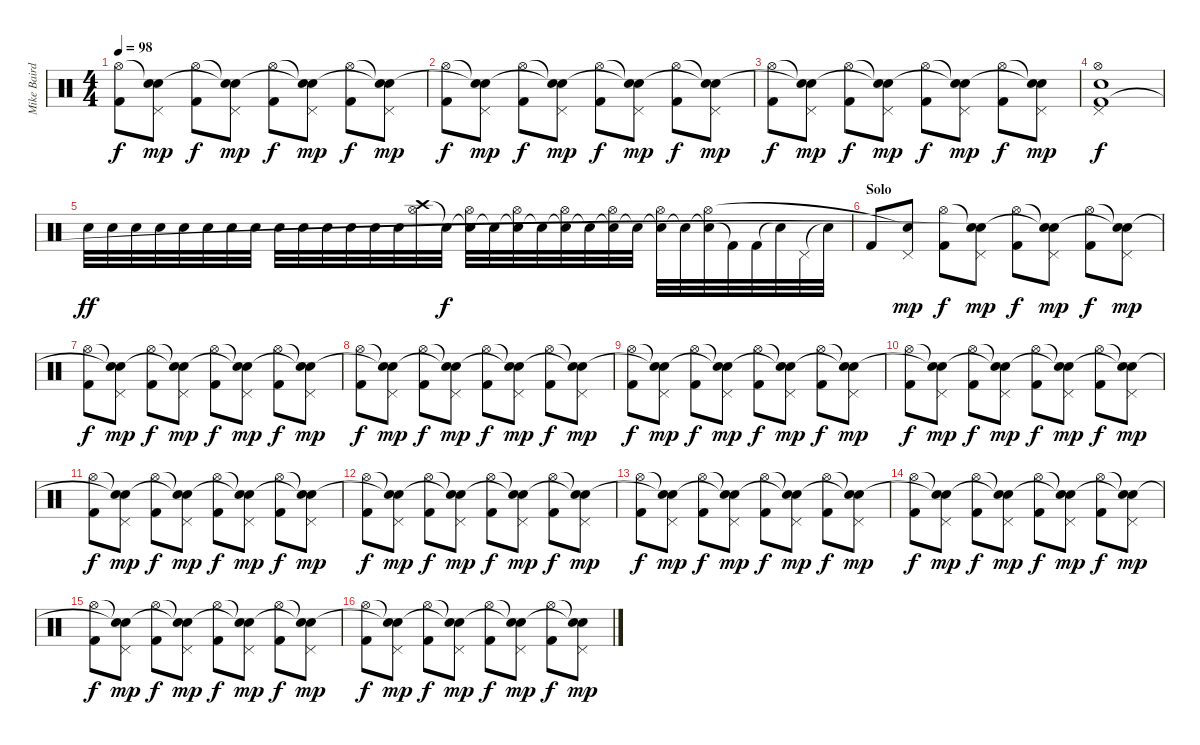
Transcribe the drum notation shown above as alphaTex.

\track ("Mike Baird [drums]" "Mike Baird") {instrument percussion}
\staff {score}
\articulation defaults
\ts (4 4)
\tempo 98
\clef neutral
\ks c
("Hi-Hat (open)" "Kick (hit) 2").8{dy f} ("Snare (hit)"{t} "Pedal Hi-Hat (hit)" "Snare (hit)"{t}).8{dy mp} ("Hi-Hat (open)" "Kick (hit) 2").8{dy f} ("Snare (hit)"{t} "Pedal Hi-Hat (hit)" "Snare (hit)"{t}).8{dy mp} ("Hi-Hat (open)" "Kick (hit) 2").8{dy f} ("Snare (hit)"{t} "Pedal Hi-Hat (hit)" "Snare (hit)"{t}).8{dy mp} ("Hi-Hat (open)" "Kick (hit) 2").8{dy f} ("Snare (hit)"{t} "Pedal Hi-Hat (hit)" "Snare (hit)"{t}).8{dy mp} |
("Hi-Hat (open)" "Kick (hit) 2").8{dy f} ("Snare (hit)"{t} "Pedal Hi-Hat (hit)" "Snare (hit)"{t}).8{dy mp} ("Hi-Hat (open)" "Kick (hit) 2").8{dy f} ("Snare (hit)"{t} "Pedal Hi-Hat (hit)" "Snare (hit)"{t}).8{dy mp} ("Hi-Hat (open)" "Kick (hit) 2").8{dy f} ("Snare (hit)"{t} "Pedal Hi-Hat (hit)" "Snare (hit)"{t}).8{dy mp} ("Hi-Hat (open)" "Kick (hit) 2").8{dy f} ("Snare (hit)"{t} "Pedal Hi-Hat (hit)" "Snare (hit)"{t}).8{dy mp} |
("Hi-Hat (open)" "Kick (hit) 2").8{dy f} ("Snare (hit)"{t} "Pedal Hi-Hat (hit)" "Snare (hit)"{t}).8{dy mp} ("Hi-Hat (open)" "Kick (hit) 2").8{dy f} ("Snare (hit)"{t} "Pedal Hi-Hat (hit)" "Snare (hit)"{t}).8{dy mp} ("Hi-Hat (open)" "Kick (hit) 2").8{dy f} ("Snare (hit)"{t} "Pedal Hi-Hat (hit)" "Snare (hit)"{t}).8{dy mp} ("Hi-Hat (open)" "Kick (hit) 2").8{dy f} ("Snare (hit)"{t} "Pedal Hi-Hat (hit)" "Snare (hit)"{t}).8{dy mp} |
("Hi-Hat (open)" "Pedal Hi-Hat (hit)" "Kick (hit) 2" "Electric Snare (hit)").1{dy f} |
"Electric Snare (hit)".32{dy ff} "Electric Snare (hit)".32 "Electric Snare (hit)".32 "Electric Snare (hit)".32 "Electric Snare (hit)".32 "Electric Snare (hit)".32 "Electric Snare (hit)".32 "Electric Snare (hit)".32 "Electric Snare (hit)".32 "Electric Snare (hit)".32 "Electric Snare (hit)".32 "Electric Snare (hit)".32 "Electric Snare (hit)".32 "Electric Snare (hit)".32 ("Crash high (hit)" "Hi-Hat (open)").32 "Snare (hit)"{t}.32{dy f} ("Snare (hit)"{t} "Hi-Hat (open)").32 "Snare (hit)"{t}.32 ("Snare (hit)"{t} "Hi-Hat (open)").32 "Snare (hit)"{t}.32 ("Snare (hit)"{t} "Hi-Hat (open)").32 "Snare (hit)"{t}.32 ("Snare (hit)"{t} "Hi-Hat (open)").32 "Snare (hit)"{t}.32 ("Snare (hit)"{t} "Hi-Hat (open)").32 "Snare (hit)"{t}.32 ("Snare (hit)"{t} "Hi-Hat (open)").32 "Kick (hit) 2"{t}.32 "Kick (hit) 2".32 "Snare (hit)"{t}.32 "Pedal Hi-Hat (hit)".32 "Snare (hit)"{t}.32 |
\section ("" "Solo")
"Kick (hit) 2".8 ("Pedal Hi-Hat (hit)" "Snare (hit)"{t}).8{dy mp} ("Hi-Hat (open)" "Kick (hit) 2").8{dy f} ("Snare (hit)"{t} "Pedal Hi-Hat (hit)" "Snare (hit)"{t}).8{dy mp} ("Hi-Hat (open)" "Kick (hit) 2").8{dy f} ("Snare (hit)"{t} "Pedal Hi-Hat (hit)" "Snare (hit)"{t}).8{dy mp} ("Hi-Hat (open)" "Kick (hit) 2").8{dy f} ("Snare (hit)"{t} "Pedal Hi-Hat (hit)" "Snare (hit)"{t}).8{dy mp} |
("Hi-Hat (open)" "Kick (hit) 2").8{dy f} ("Snare (hit)"{t} "Pedal Hi-Hat (hit)" "Snare (hit)"{t}).8{dy mp} ("Hi-Hat (open)" "Kick (hit) 2").8{dy f} ("Snare (hit)"{t} "Pedal Hi-Hat (hit)" "Snare (hit)"{t}).8{dy mp} ("Hi-Hat (open)" "Kick (hit) 2").8{dy f} ("Snare (hit)"{t} "Pedal Hi-Hat (hit)" "Snare (hit)"{t}).8{dy mp} ("Hi-Hat (open)" "Kick (hit) 2").8{dy f} ("Snare (hit)"{t} "Pedal Hi-Hat (hit)" "Snare (hit)"{t}).8{dy mp} |
("Hi-Hat (open)" "Kick (hit) 2").8{dy f} ("Snare (hit)"{t} "Pedal Hi-Hat (hit)" "Snare (hit)"{t}).8{dy mp} ("Hi-Hat (open)" "Kick (hit) 2").8{dy f} ("Snare (hit)"{t} "Pedal Hi-Hat (hit)" "Snare (hit)"{t}).8{dy mp} ("Hi-Hat (open)" "Kick (hit) 2").8{dy f} ("Snare (hit)"{t} "Pedal Hi-Hat (hit)" "Snare (hit)"{t}).8{dy mp} ("Hi-Hat (open)" "Kick (hit) 2").8{dy f} ("Snare (hit)"{t} "Pedal Hi-Hat (hit)" "Snare (hit)"{t}).8{dy mp} |
("Hi-Hat (open)" "Kick (hit) 2").8{dy f} ("Snare (hit)"{t} "Pedal Hi-Hat (hit)" "Snare (hit)"{t}).8{dy mp} ("Hi-Hat (open)" "Kick (hit) 2").8{dy f} ("Snare (hit)"{t} "Pedal Hi-Hat (hit)" "Snare (hit)"{t}).8{dy mp} ("Hi-Hat (open)" "Kick (hit) 2").8{dy f} ("Snare (hit)"{t} "Pedal Hi-Hat (hit)" "Snare (hit)"{t}).8{dy mp} ("Hi-Hat (open)" "Kick (hit) 2").8{dy f} ("Snare (hit)"{t} "Pedal Hi-Hat (hit)" "Snare (hit)"{t}).8{dy mp} |
("Hi-Hat (open)" "Kick (hit) 2").8{dy f} ("Snare (hit)"{t} "Pedal Hi-Hat (hit)" "Snare (hit)"{t}).8{dy mp} ("Hi-Hat (open)" "Kick (hit) 2").8{dy f} ("Snare (hit)"{t} "Pedal Hi-Hat (hit)" "Snare (hit)"{t}).8{dy mp} ("Hi-Hat (open)" "Kick (hit) 2").8{dy f} ("Snare (hit)"{t} "Pedal Hi-Hat (hit)" "Snare (hit)"{t}).8{dy mp} ("Hi-Hat (open)" "Kick (hit) 2").8{dy f} ("Snare (hit)"{t} "Pedal Hi-Hat (hit)" "Snare (hit)"{t}).8{dy mp} |
("Hi-Hat (open)" "Kick (hit) 2").8{dy f} ("Snare (hit)"{t} "Pedal Hi-Hat (hit)" "Snare (hit)"{t}).8{dy mp} ("Hi-Hat (open)" "Kick (hit) 2").8{dy f} ("Snare (hit)"{t} "Pedal Hi-Hat (hit)" "Snare (hit)"{t}).8{dy mp} ("Hi-Hat (open)" "Kick (hit) 2").8{dy f} ("Snare (hit)"{t} "Pedal Hi-Hat (hit)" "Snare (hit)"{t}).8{dy mp} ("Hi-Hat (open)" "Kick (hit) 2").8{dy f} ("Snare (hit)"{t} "Pedal Hi-Hat (hit)" "Snare (hit)"{t}).8{dy mp} |
("Hi-Hat (open)" "Kick (hit) 2").8{dy f} ("Snare (hit)"{t} "Pedal Hi-Hat (hit)" "Snare (hit)"{t}).8{dy mp} ("Hi-Hat (open)" "Kick (hit) 2").8{dy f} ("Snare (hit)"{t} "Pedal Hi-Hat (hit)" "Snare (hit)"{t}).8{dy mp} ("Hi-Hat (open)" "Kick (hit) 2").8{dy f} ("Snare (hit)"{t} "Pedal Hi-Hat (hit)" "Snare (hit)"{t}).8{dy mp} ("Hi-Hat (open)" "Kick (hit) 2").8{dy f} ("Snare (hit)"{t} "Pedal Hi-Hat (hit)" "Snare (hit)"{t}).8{dy mp} |
("Hi-Hat (open)" "Kick (hit) 2").8{dy f} ("Snare (hit)"{t} "Pedal Hi-Hat (hit)" "Snare (hit)"{t}).8{dy mp} ("Hi-Hat (open)" "Kick (hit) 2").8{dy f} ("Snare (hit)"{t} "Pedal Hi-Hat (hit)" "Snare (hit)"{t}).8{dy mp} ("Hi-Hat (open)" "Kick (hit) 2").8{dy f} ("Snare (hit)"{t} "Pedal Hi-Hat (hit)" "Snare (hit)"{t}).8{dy mp} ("Hi-Hat (open)" "Kick (hit) 2").8{dy f} ("Snare (hit)"{t} "Pedal Hi-Hat (hit)" "Snare (hit)"{t}).8{dy mp} |
("Hi-Hat (open)" "Kick (hit) 2").8{dy f} ("Snare (hit)"{t} "Pedal Hi-Hat (hit)" "Snare (hit)"{t}).8{dy mp} ("Hi-Hat (open)" "Kick (hit) 2").8{dy f} ("Snare (hit)"{t} "Pedal Hi-Hat (hit)" "Snare (hit)"{t}).8{dy mp} ("Hi-Hat (open)" "Kick (hit) 2").8{dy f} ("Snare (hit)"{t} "Pedal Hi-Hat (hit)" "Snare (hit)"{t}).8{dy mp} ("Hi-Hat (open)" "Kick (hit) 2").8{dy f} ("Snare (hit)"{t} "Pedal Hi-Hat (hit)" "Snare (hit)"{t}).8{dy mp} |
("Hi-Hat (open)" "Kick (hit) 2").8{dy f} ("Snare (hit)"{t} "Pedal Hi-Hat (hit)" "Snare (hit)"{t}).8{dy mp} ("Hi-Hat (open)" "Kick (hit) 2").8{dy f} ("Snare (hit)"{t} "Pedal Hi-Hat (hit)" "Snare (hit)"{t}).8{dy mp} ("Hi-Hat (open)" "Kick (hit) 2").8{dy f} ("Snare (hit)"{t} "Pedal Hi-Hat (hit)" "Snare (hit)"{t}).8{dy mp} ("Hi-Hat (open)" "Kick (hit) 2").8{dy f} ("Snare (hit)"{t} "Pedal Hi-Hat (hit)" "Snare (hit)"{t}).8{dy mp} |
("Hi-Hat (open)" "Kick (hit) 2").8{dy f} ("Snare (hit)"{t} "Pedal Hi-Hat (hit)" "Snare (hit)"{t}).8{dy mp} ("Hi-Hat (open)" "Kick (hit) 2").8{dy f} ("Snare (hit)"{t} "Pedal Hi-Hat (hit)" "Snare (hit)"{t}).8{dy mp} ("Hi-Hat (open)" "Kick (hit) 2").8{dy f} ("Snare (hit)"{t} "Pedal Hi-Hat (hit)" "Snare (hit)"{t}).8{dy mp} ("Hi-Hat (open)" "Kick (hit) 2").8{dy f} ("Snare (hit)"{t} "Pedal Hi-Hat (hit)" "Snare (hit)"{t}).8{dy mp}
